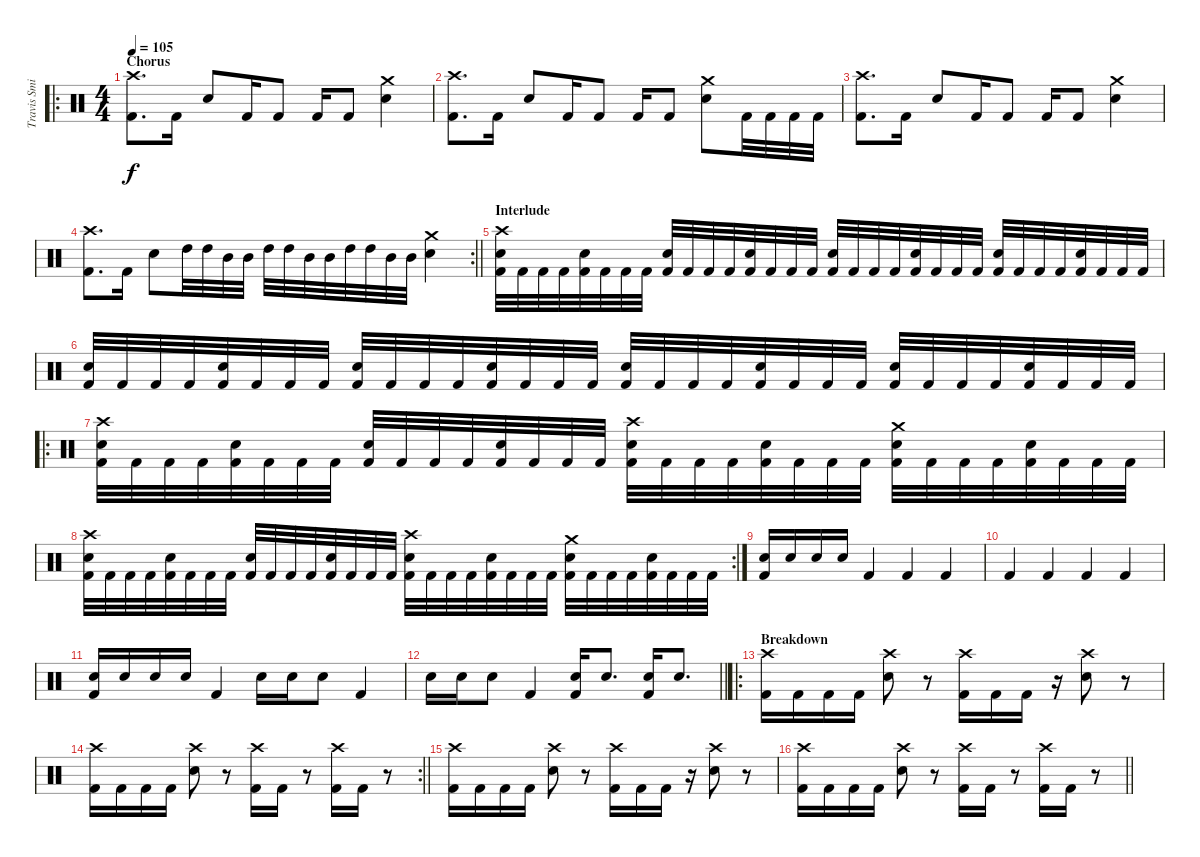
\track ("Travis Smith" "Travis Smi") {instrument percussion}
\staff {score}
\articulation defaults
\ro
\ts (4 4)
\section ("" "Chorus")
\tempo 105
\clef neutral
\ks c
("Crash high (hit)" "Kick (hit) 2").8{d dy f} "Kick (hit) 2".16 "Snare (hit) 2".8 "Kick (hit) 2".16 "Kick (hit) 2".8 "Kick (hit) 2".16 "Kick (hit) 2".8 ("Crash medium (hit)" "Snare (hit) 2").4 |
("Crash high (hit)" "Kick (hit) 2").8{d} "Kick (hit) 2".16 "Snare (hit) 2".8 "Kick (hit) 2".16 "Kick (hit) 2".8 "Kick (hit) 2".16 "Kick (hit) 2".8 ("Crash medium (hit)" "Snare (hit) 2").8 "Kick (hit) 2".32 "Kick (hit) 2".32 "Kick (hit) 2".32 "Kick (hit) 2".32 |
("Crash high (hit)" "Kick (hit) 2").8{d} "Kick (hit) 2".16 "Snare (hit) 2".8 "Kick (hit) 2".16 "Kick (hit) 2".8 "Kick (hit) 2".16 "Kick (hit) 2".8 ("Crash medium (hit)" "Snare (hit) 2").4 |
\rc 2
\barLineRight lightlight
("Crash high (hit)" "Kick (hit) 2").8{d} "Kick (hit) 2".16 "Snare (hit) 2".8 "High Tom (hit)".32 "High Tom (hit)".32 "Mid Tom (hit)".32 "Mid Tom (hit)".32 "High Tom (hit)".32 "High Tom (hit)".32 "Mid Tom (hit)".32 "Mid Tom (hit)".32 "High Tom (hit)".32 "High Tom (hit)".32 "Mid Tom (hit)".32 "Mid Tom (hit)".32 ("Crash medium (hit)" "Snare (hit) 2").4 |
\section ("" "Interlude")
("Crash high (hit)" "Snare (hit) 2" "Kick (hit) 2").32 "Kick (hit) 2".32 "Kick (hit) 2".32 "Kick (hit) 2".32 ("Snare (hit) 2" "Kick (hit) 2").32 "Kick (hit) 2".32 "Kick (hit) 2".32 "Kick (hit) 2".32 ("Snare (hit) 2" "Kick (hit) 2").32 "Kick (hit) 2".32 "Kick (hit) 2".32 "Kick (hit) 2".32 ("Snare (hit) 2" "Kick (hit) 2").32 "Kick (hit) 2".32 "Kick (hit) 2".32 "Kick (hit) 2".32 ("Snare (hit) 2" "Kick (hit) 2").32 "Kick (hit) 2".32 "Kick (hit) 2".32 "Kick (hit) 2".32 ("Snare (hit) 2" "Kick (hit) 2").32 "Kick (hit) 2".32 "Kick (hit) 2".32 "Kick (hit) 2".32 ("Snare (hit) 2" "Kick (hit) 2").32 "Kick (hit) 2".32 "Kick (hit) 2".32 "Kick (hit) 2".32 ("Snare (hit) 2" "Kick (hit) 2").32 "Kick (hit) 2".32 "Kick (hit) 2".32 "Kick (hit) 2".32 |
("Snare (hit) 2" "Kick (hit) 2").32 "Kick (hit) 2".32 "Kick (hit) 2".32 "Kick (hit) 2".32 ("Snare (hit) 2" "Kick (hit) 2").32 "Kick (hit) 2".32 "Kick (hit) 2".32 "Kick (hit) 2".32 ("Snare (hit) 2" "Kick (hit) 2").32 "Kick (hit) 2".32 "Kick (hit) 2".32 "Kick (hit) 2".32 ("Snare (hit) 2" "Kick (hit) 2").32 "Kick (hit) 2".32 "Kick (hit) 2".32 "Kick (hit) 2".32 ("Snare (hit) 2" "Kick (hit) 2").32 "Kick (hit) 2".32 "Kick (hit) 2".32 "Kick (hit) 2".32 ("Snare (hit) 2" "Kick (hit) 2").32 "Kick (hit) 2".32 "Kick (hit) 2".32 "Kick (hit) 2".32 ("Snare (hit) 2" "Kick (hit) 2").32 "Kick (hit) 2".32 "Kick (hit) 2".32 "Kick (hit) 2".32 ("Snare (hit) 2" "Kick (hit) 2").32 "Kick (hit) 2".32 "Kick (hit) 2".32 "Kick (hit) 2".32 |
\ro
("Crash high (hit)" "Snare (hit) 2" "Kick (hit) 2").32 "Kick (hit) 2".32 "Kick (hit) 2".32 "Kick (hit) 2".32 ("Snare (hit) 2" "Kick (hit) 2").32 "Kick (hit) 2".32 "Kick (hit) 2".32 "Kick (hit) 2".32 ("Snare (hit) 2" "Kick (hit) 2").32 "Kick (hit) 2".32 "Kick (hit) 2".32 "Kick (hit) 2".32 ("Snare (hit) 2" "Kick (hit) 2").32 "Kick (hit) 2".32 "Kick (hit) 2".32 "Kick (hit) 2".32 ("Crash high (hit)" "Snare (hit) 2" "Kick (hit) 2").32 "Kick (hit) 2".32 "Kick (hit) 2".32 "Kick (hit) 2".32 ("Snare (hit) 2" "Kick (hit) 2").32 "Kick (hit) 2".32 "Kick (hit) 2".32 "Kick (hit) 2".32 ("Crash medium (hit)" "Snare (hit) 2" "Kick (hit) 2").32 "Kick (hit) 2".32 "Kick (hit) 2".32 "Kick (hit) 2".32 ("Snare (hit) 2" "Kick (hit) 2").32 "Kick (hit) 2".32 "Kick (hit) 2".32 "Kick (hit) 2".32 |
\rc 2
("Crash high (hit)" "Snare (hit) 2" "Kick (hit) 2").32 "Kick (hit) 2".32 "Kick (hit) 2".32 "Kick (hit) 2".32 ("Snare (hit) 2" "Kick (hit) 2").32 "Kick (hit) 2".32 "Kick (hit) 2".32 "Kick (hit) 2".32 ("Snare (hit) 2" "Kick (hit) 2").32 "Kick (hit) 2".32 "Kick (hit) 2".32 "Kick (hit) 2".32 ("Snare (hit) 2" "Kick (hit) 2").32 "Kick (hit) 2".32 "Kick (hit) 2".32 "Kick (hit) 2".32 ("Crash high (hit)" "Snare (hit) 2" "Kick (hit) 2").32 "Kick (hit) 2".32 "Kick (hit) 2".32 "Kick (hit) 2".32 ("Snare (hit) 2" "Kick (hit) 2").32 "Kick (hit) 2".32 "Kick (hit) 2".32 "Kick (hit) 2".32 ("Crash medium (hit)" "Snare (hit) 2" "Kick (hit) 2").32 "Kick (hit) 2".32 "Kick (hit) 2".32 "Kick (hit) 2".32 ("Snare (hit) 2" "Kick (hit) 2").32 "Kick (hit) 2".32 "Kick (hit) 2".32 "Kick (hit) 2".32 |
("Snare (hit) 2" "Kick (hit) 2").16 "Snare (hit) 2".16 "Snare (hit) 2".16 "Snare (hit) 2".16 "Kick (hit) 2".4 "Kick (hit) 2".4 "Kick (hit) 2".4 |
"Kick (hit) 2".4 "Kick (hit) 2".4 "Kick (hit) 2".4 "Kick (hit) 2".4 |
("Snare (hit) 2" "Kick (hit) 2").16 "Snare (hit) 2".16 "Snare (hit) 2".16 "Snare (hit) 2".16 "Kick (hit) 2".4 "Snare (hit) 2".16 "Snare (hit) 2".16 "Snare (hit) 2".8 "Kick (hit) 2".4 |
\barLineRight lightlight "Snare (hit) 2".16 "Snare (hit) 2".16 "Snare (hit) 2".8 "Kick (hit) 2".4
("Snare (hit) 2" "Kick (hit) 2").16 "Snare (hit) 2".8{d} ("Snare (hit) 2" "Kick (hit) 2").16 "Snare (hit) 2".8{d} |
\ro
\section ("" "Breakdown")
("Crash high (hit)" "Kick (hit) 2").16 "Kick (hit) 2".16 "Kick (hit) 2".16 "Kick (hit) 2".16 ("Crash high (hit)" "Snare (hit) 2").8 r.8 ("Crash high (hit)" "Kick (hit) 2").16 "Kick (hit) 2".16 "Kick (hit) 2".16 r.16 ("Crash high (hit)" "Snare (hit) 2").8 r.8 |
\rc 2
\barLineRight lightlight
("Crash high (hit)" "Kick (hit) 2").16 "Kick (hit) 2".16 "Kick (hit) 2".16 "Kick (hit) 2".16 ("Crash high (hit)" "Snare (hit) 2").8 r.8 ("Crash high (hit)" "Kick (hit) 2").16 "Kick (hit) 2".16 r.8 ("Crash high (hit)" "Kick (hit) 2").16 "Kick (hit) 2".16 r.8 |
("Crash high (hit)" "Kick (hit) 2").16 "Kick (hit) 2".16 "Kick (hit) 2".16 "Kick (hit) 2".16 ("Crash high (hit)" "Snare (hit) 2").8 r.8 ("Crash high (hit)" "Kick (hit) 2").16 "Kick (hit) 2".16 "Kick (hit) 2".16 r.16 ("Crash high (hit)" "Snare (hit) 2").8 r.8 |
\barLineRight lightlight
("Crash high (hit)" "Kick (hit) 2").16 "Kick (hit) 2".16 "Kick (hit) 2".16 "Kick (hit) 2".16 ("Crash high (hit)" "Snare (hit) 2").8 r.8 ("Crash high (hit)" "Kick (hit) 2").16 "Kick (hit) 2".16 r.8 ("Crash high (hit)" "Kick (hit) 2").16 "Kick (hit) 2".16 r.8
